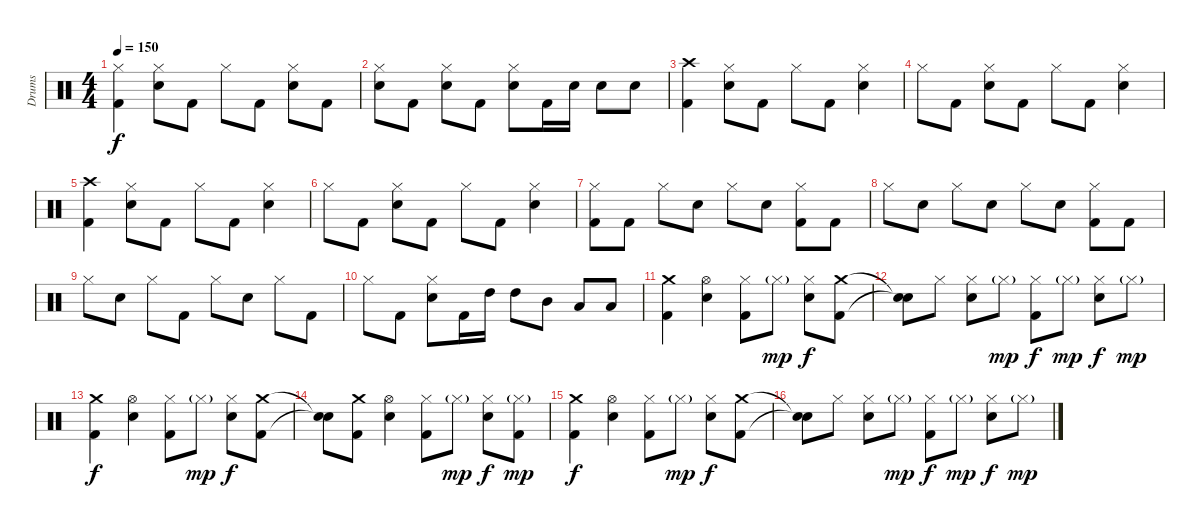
\track ("Drums" "Drums") {instrument percussion}
\staff {score}
\articulation defaults
\ts (4 4)
\tempo 150
\clef neutral
\ks c
("Hi-Hat (closed)" "Kick (hit) 2").4{dy f} ("Hi-Hat (closed)" "Electric Snare (hit)").8 "Kick (hit) 2".8 "Hi-Hat (closed)".8 "Kick (hit) 2".8 ("Hi-Hat (closed)" "Electric Snare (hit)").8 "Kick (hit) 2".8 |
("Hi-Hat (closed)" "Electric Snare (hit)").8 "Kick (hit) 2".8 ("Hi-Hat (closed)" "Electric Snare (hit)").8 "Kick (hit) 2".8 ("Hi-Hat (closed)" "Electric Snare (hit)").8 "Kick (hit) 2".16 "Electric Snare (hit)".16 "Electric Snare (hit)".8 "Electric Snare (hit)".8 |
("Crash high (hit)" "Kick (hit) 2").4 ("Hi-Hat (closed)" "Electric Snare (hit)").8 "Kick (hit) 2".8 "Hi-Hat (closed)".8 "Kick (hit) 2".8 ("Hi-Hat (closed)" "Electric Snare (hit)").4 |
"Hi-Hat (closed)".8 "Kick (hit) 2".8 ("Hi-Hat (closed)" "Electric Snare (hit)").8 "Kick (hit) 2".8 "Hi-Hat (closed)".8 "Kick (hit) 2".8 ("Hi-Hat (closed)" "Electric Snare (hit)").4 |
("Crash high (hit)" "Kick (hit) 2").4 ("Hi-Hat (closed)" "Electric Snare (hit)").8 "Kick (hit) 2".8 "Hi-Hat (closed)".8 "Kick (hit) 2".8 ("Hi-Hat (closed)" "Electric Snare (hit)").4 |
"Hi-Hat (closed)".8 "Kick (hit) 2".8 ("Hi-Hat (closed)" "Electric Snare (hit)").8 "Kick (hit) 2".8 "Hi-Hat (closed)".8 "Kick (hit) 2".8 ("Hi-Hat (closed)" "Electric Snare (hit)").4 |
("Hi-Hat (closed)" "Kick (hit) 2").8 "Kick (hit) 2".8 "Hi-Hat (closed)".8 "Electric Snare (hit)".8 "Hi-Hat (closed)".8 "Electric Snare (hit)".8 ("Hi-Hat (closed)" "Kick (hit) 2").8 "Kick (hit) 2".8 |
"Hi-Hat (closed)".8 "Electric Snare (hit)".8 "Hi-Hat (closed)".8 "Electric Snare (hit)".8 "Hi-Hat (closed)".8 "Electric Snare (hit)".8 ("Hi-Hat (closed)" "Kick (hit) 2").8 "Kick (hit) 2".8 |
"Hi-Hat (closed)".8 "Electric Snare (hit)".8 "Hi-Hat (closed)".8 "Kick (hit) 2".8 "Hi-Hat (closed)".8 "Electric Snare (hit)".8 "Hi-Hat (closed)".8 "Kick (hit) 2".8 |
"Hi-Hat (closed)".8 "Kick (hit) 2".8 ("Hi-Hat (closed)" "Electric Snare (hit)").8 "Kick (hit) 2".16 "High Tom (hit)".16 "High Tom (hit)".8 "Mid Tom (hit)".8 "Low Tom (hit)".8 "Low Tom (hit)".8 |
("Crash medium (hit)" "Kick (hit) 2").4 ("Hi-Hat (open)" "Electric Snare (hit)").4 ("Hi-Hat (closed)" "Kick (hit) 2").8 "Hi-Hat (closed)"{g}.8{dy mp} ("Hi-Hat (closed)" "Electric Snare (hit)").8{dy f} ("Crash medium (hit)" "Kick (hit) 2").8 |
("Snare (hit)"{t} "Snare (hit)"{t}).8 "Hi-Hat (closed)".8 ("Hi-Hat (closed)" "Electric Snare (hit)").8 "Hi-Hat (closed)"{g}.8{dy mp} ("Hi-Hat (closed)" "Kick (hit) 2").8{dy f} "Hi-Hat (closed)"{g}.8{dy mp} ("Hi-Hat (closed)" "Electric Snare (hit)").8{dy f} "Hi-Hat (closed)"{g}.8{dy mp} |
("Crash medium (hit)" "Kick (hit) 2").4{dy f} ("Hi-Hat (open)" "Electric Snare (hit)").4 ("Hi-Hat (closed)" "Kick (hit) 2").8 "Hi-Hat (closed)"{g}.8{dy mp} ("Hi-Hat (closed)" "Electric Snare (hit)").8{dy f} ("Crash medium (hit)" "Kick (hit) 2").8 |
("Snare (hit)"{t} "Snare (hit)"{t}).8 ("Crash medium (hit)" "Kick (hit) 2").8 ("Hi-Hat (open)" "Electric Snare (hit)").4 ("Hi-Hat (closed)" "Kick (hit) 2").8 "Hi-Hat (closed)"{g}.8{dy mp} ("Hi-Hat (closed)" "Electric Snare (hit)").8{dy f} ("Hi-Hat (closed)"{g} "Kick (hit) 2").8{dy mp} |
("Crash medium (hit)" "Kick (hit) 2").4{dy f} ("Hi-Hat (open)" "Electric Snare (hit)").4 ("Hi-Hat (closed)" "Kick (hit) 2").8 "Hi-Hat (closed)"{g}.8{dy mp} ("Hi-Hat (closed)" "Electric Snare (hit)").8{dy f} ("Crash medium (hit)" "Kick (hit) 2").8 |
("Snare (hit)"{t} "Snare (hit)"{t}).8 "Hi-Hat (closed)".8 ("Hi-Hat (closed)" "Electric Snare (hit)").8 "Hi-Hat (closed)"{g}.8{dy mp} ("Hi-Hat (closed)" "Kick (hit) 2").8{dy f} "Hi-Hat (closed)"{g}.8{dy mp} ("Hi-Hat (closed)" "Electric Snare (hit)").8{dy f} "Hi-Hat (closed)"{g}.8{dy mp}
